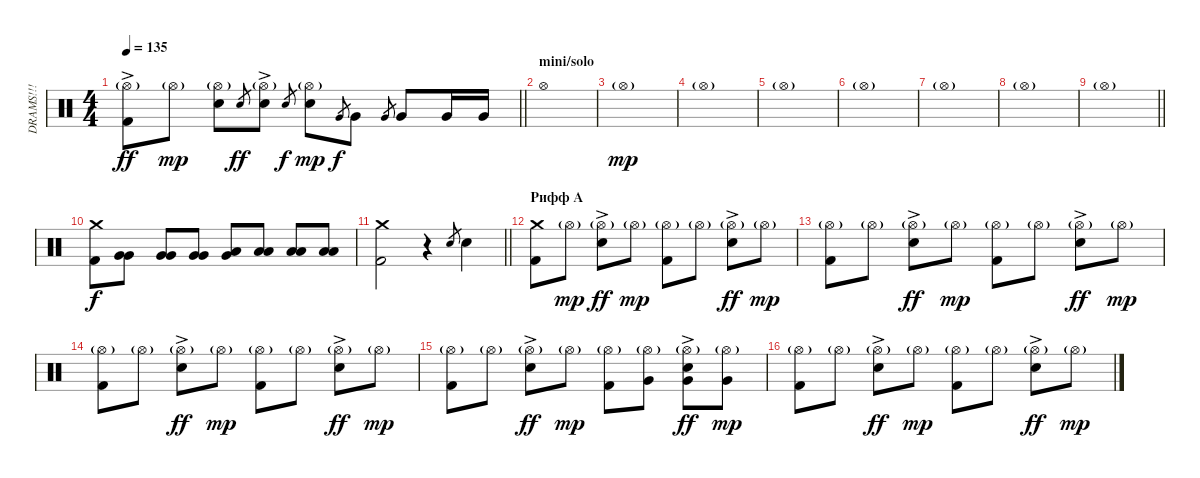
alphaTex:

\track ("DRAMS!!!" "DRAMS!!!") {instrument percussion}
\staff {score}
\articulation defaults
\ts (4 4)
\tempo 135
\clef neutral
\barLineRight lightlight
\ks c
("Hi-Hat (open)"{g} "Kick (hit) 2"{ac}).8{dy ff} "Hi-Hat (open)"{g}.8{dy mp} ("Hi-Hat (open)"{g} "Snare (hit) 2").8 "Snare (hit) 2".8{gr dy ff} ("Hi-Hat (open)"{g} "Snare (hit) 2"{ac}).8 "Snare (hit) 2".8{gr dy f} ("Hi-Hat (open)"{g} "Snare (hit) 2").8{dy mp} "Very Low Tom (hit)".8{gr dy f} "Very Low Tom (hit)".8 "Very Low Tom (hit)".8{gr} "Very Low Tom (hit)".8 "Very Low Tom (hit)".16 "Very Low Tom (hit)".16 |
\section ("" "mini/solo")
"Hi-Hat (open)".1 |
"Hi-Hat (open)"{g}.1{dy mp} |
"Hi-Hat (open)"{g}.1 |
"Hi-Hat (open)"{g}.1 |
"Hi-Hat (open)"{g}.1 |
"Hi-Hat (open)"{g}.1 |
"Hi-Hat (open)"{g}.1 |
\barLineRight lightlight "Hi-Hat (open)"{g}.1
|
\section ("" "")
("Crash medium (hit)" "Kick (hit) 2").8{dy f} ("Very Low Tom (hit)" "Very Low Tom (hit)").8 ("Very Low Tom (hit)" "Very Low Tom (hit)").8 ("Very Low Tom (hit)" "Very Low Tom (hit)").8 ("Very Low Tom (hit)" "Low Tom (hit)").8 ("Low Tom (hit)" "Low Tom (hit)").8 ("Low Tom (hit)" "Low Tom (hit)").8 ("Low Tom (hit)" "Low Tom (hit)").8 |
\barLineRight lightlight
("Crash medium (hit)" "Kick (hit) 2").2 r.4 "Snare (hit) 2".8{gr} "Snare (hit) 2".4 |
\section ("" "Рифф А")
("Crash medium (hit)" "Kick (hit) 2").8 "Hi-Hat (open)"{g}.8{dy mp} ("Hi-Hat (open)"{g} "Snare (hit) 2"{ac}).8{dy ff} "Hi-Hat (open)"{g}.8{dy mp} ("Hi-Hat (open)"{g} "Kick (hit) 2").8 "Hi-Hat (open)"{g}.8 ("Hi-Hat (open)"{g} "Snare (hit) 2"{ac}).8{dy ff} "Hi-Hat (open)"{g}.8{dy mp} |
("Hi-Hat (open)"{g} "Kick (hit) 2").8 "Hi-Hat (open)"{g}.8 ("Hi-Hat (open)"{g} "Snare (hit) 2"{ac}).8{dy ff} "Hi-Hat (open)"{g}.8{dy mp} ("Hi-Hat (open)"{g} "Kick (hit) 2").8 "Hi-Hat (open)"{g}.8 ("Hi-Hat (open)"{g} "Snare (hit) 2"{ac}).8{dy ff} "Hi-Hat (open)"{g}.8{dy mp} |
("Hi-Hat (open)"{g} "Kick (hit) 2").8 "Hi-Hat (open)"{g}.8 ("Hi-Hat (open)"{g} "Snare (hit) 2"{ac}).8{dy ff} "Hi-Hat (open)"{g}.8{dy mp} ("Hi-Hat (open)"{g} "Kick (hit) 2").8 "Hi-Hat (open)"{g}.8 ("Hi-Hat (open)"{g} "Snare (hit) 2"{ac}).8{dy ff} "Hi-Hat (open)"{g}.8{dy mp} |
("Hi-Hat (open)"{g} "Kick (hit) 2").8 "Hi-Hat (open)"{g}.8 ("Hi-Hat (open)"{g} "Snare (hit) 2"{ac}).8{dy ff} "Hi-Hat (open)"{g}.8{dy mp} ("Hi-Hat (open)"{g} "Kick (hit) 2").8 ("Hi-Hat (open)"{g} "Very Low Tom (hit)").8 ("Hi-Hat (open)"{g} "Very Low Tom (hit)" "Snare (hit) 2"{ac}).8{dy ff} ("Hi-Hat (open)"{g} "Very Low Tom (hit)").8{dy mp} |
("Hi-Hat (open)"{g} "Kick (hit) 2").8 "Hi-Hat (open)"{g}.8 ("Hi-Hat (open)"{g} "Snare (hit) 2"{ac}).8{dy ff} "Hi-Hat (open)"{g}.8{dy mp} ("Hi-Hat (open)"{g} "Kick (hit) 2").8 "Hi-Hat (open)"{g}.8 ("Hi-Hat (open)"{g} "Snare (hit) 2"{ac}).8{dy ff} "Hi-Hat (open)"{g}.8{dy mp}
